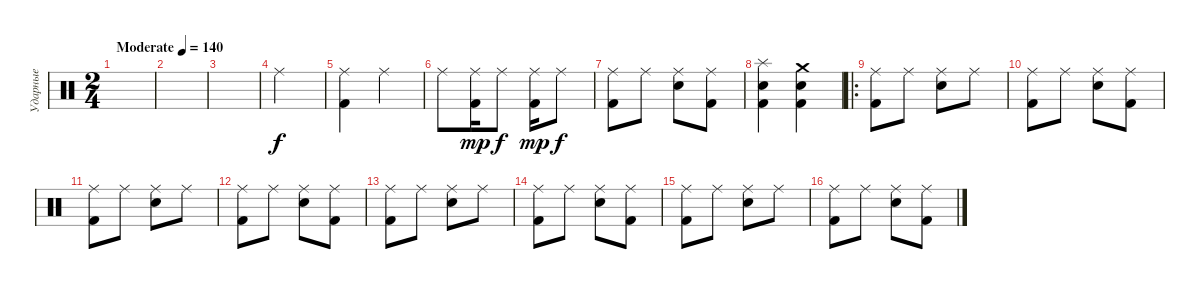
\track ("Ударные" "Ударные") {instrument percussion}
\staff {score}
\articulation defaults
\ts (2 4)
\tempo (140 "Moderate")
\clef neutral
\ks c
|
|
|
"Ride (middle)".2 |
("Ride (middle)" "Kick (hit) 2").4 "Ride (middle)".4 |
"Ride (middle)".8{dy f} ("Ride (middle)" "Kick (hit) 2").16{dy mp} "Ride (middle)".8{dy f} ("Ride (middle)" "Kick (hit) 2").16{dy mp} "Ride (middle)".8{dy f} |
("Ride (middle)" "Kick (hit) 2").8 "Ride (middle)".8 ("Ride (middle)" "Snare (hit) 2").8 ("Ride (middle)" "Kick (hit) 2").8 |
("Splash (hit)" "Snare (hit) 2" "Kick (hit) 2").4 ("Crash medium (hit)" "Snare (hit) 2" "Kick (hit) 2").4 |
\ro
("Ride (middle)" "Kick (hit) 2").8 "Ride (middle)".8 ("Ride (middle)" "Snare (hit) 2").8 "Ride (middle)".8 |
("Ride (middle)" "Kick (hit) 2").8 "Ride (middle)".8 ("Ride (middle)" "Snare (hit) 2").8 ("Ride (middle)" "Kick (hit) 2").8 |
("Ride (middle)" "Kick (hit) 2").8 "Ride (middle)".8 ("Ride (middle)" "Snare (hit) 2").8 "Ride (middle)".8 |
("Ride (middle)" "Kick (hit) 2").8 "Ride (middle)".8 ("Ride (middle)" "Snare (hit) 2").8 ("Ride (middle)" "Kick (hit) 2").8 |
("Ride (middle)" "Kick (hit) 2").8 "Ride (middle)".8 ("Ride (middle)" "Snare (hit) 2").8 "Ride (middle)".8 |
("Ride (middle)" "Kick (hit) 2").8 "Ride (middle)".8 ("Ride (middle)" "Snare (hit) 2").8 ("Ride (middle)" "Kick (hit) 2").8 |
("Ride (middle)" "Kick (hit) 2").8 "Ride (middle)".8 ("Ride (middle)" "Snare (hit) 2").8 "Ride (middle)".8 |
("Ride (middle)" "Kick (hit) 2").8 "Ride (middle)".8 ("Ride (middle)" "Snare (hit) 2").8 ("Ride (middle)" "Kick (hit) 2").8
